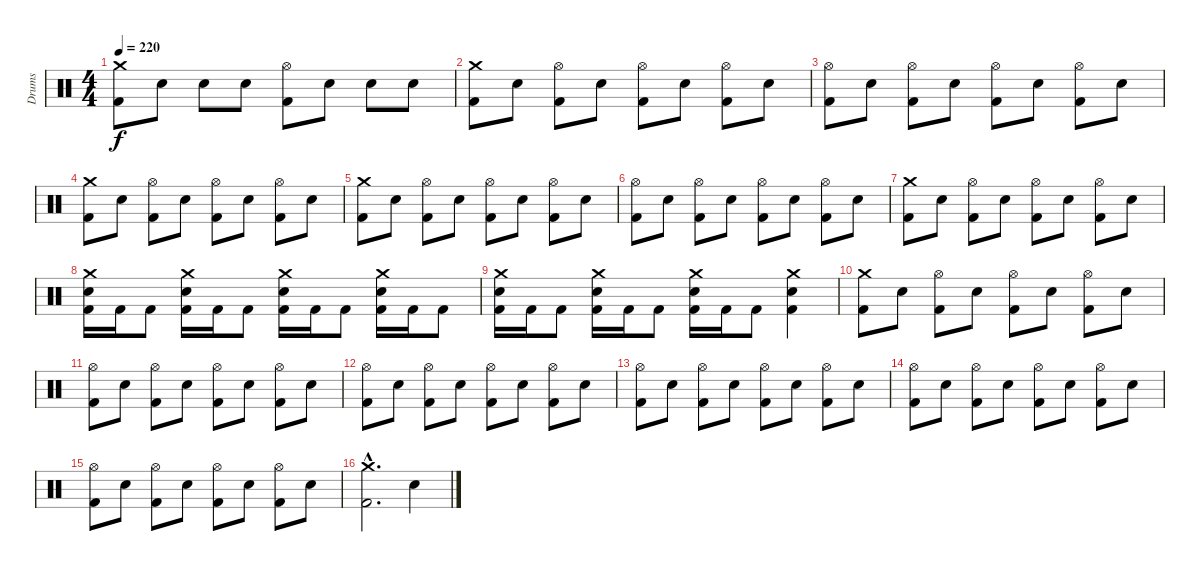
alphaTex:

\track ("Drums" "Drums") {instrument percussion}
\staff {score}
\articulation defaults
\ts (4 4)
\tempo 220
\clef neutral
\ks c
("Crash medium (hit)" "Kick (hit) 2").8{dy f} "Electric Snare (hit)".8 "Electric Snare (hit)".8 "Electric Snare (hit)".8 ("Hi-Hat (open)" "Kick (hit) 2").8 "Electric Snare (hit)".8 "Electric Snare (hit)".8 "Electric Snare (hit)".8 |
("Crash medium (hit)" "Kick (hit) 2").8 "Electric Snare (hit)".8 ("Hi-Hat (open)" "Kick (hit) 2").8 "Electric Snare (hit)".8 ("Hi-Hat (open)" "Kick (hit) 2").8 "Electric Snare (hit)".8 ("Hi-Hat (open)" "Kick (hit) 2").8 "Electric Snare (hit)".8 |
("Hi-Hat (open)" "Kick (hit) 2").8 "Electric Snare (hit)".8 ("Hi-Hat (open)" "Kick (hit) 2").8 "Electric Snare (hit)".8 ("Hi-Hat (open)" "Kick (hit) 2").8 "Electric Snare (hit)".8 ("Hi-Hat (open)" "Kick (hit) 2").8 "Electric Snare (hit)".8 |
("Crash medium (hit)" "Kick (hit) 2").8 "Electric Snare (hit)".8 ("Hi-Hat (open)" "Kick (hit) 2").8 "Electric Snare (hit)".8 ("Hi-Hat (open)" "Kick (hit) 2").8 "Electric Snare (hit)".8 ("Hi-Hat (open)" "Kick (hit) 2").8 "Electric Snare (hit)".8 |
("Crash medium (hit)" "Kick (hit) 2").8 "Electric Snare (hit)".8 ("Hi-Hat (open)" "Kick (hit) 2").8 "Electric Snare (hit)".8 ("Hi-Hat (open)" "Kick (hit) 2").8 "Electric Snare (hit)".8 ("Hi-Hat (open)" "Kick (hit) 2").8 "Electric Snare (hit)".8 |
("Hi-Hat (open)" "Kick (hit) 2").8 "Electric Snare (hit)".8 ("Hi-Hat (open)" "Kick (hit) 2").8 "Electric Snare (hit)".8 ("Hi-Hat (open)" "Kick (hit) 2").8 "Electric Snare (hit)".8 ("Hi-Hat (open)" "Kick (hit) 2").8 "Electric Snare (hit)".8 |
("Crash medium (hit)" "Kick (hit) 2").8 "Electric Snare (hit)".8 ("Hi-Hat (open)" "Kick (hit) 2").8 "Electric Snare (hit)".8 ("Hi-Hat (open)" "Kick (hit) 2").8 "Electric Snare (hit)".8 ("Hi-Hat (open)" "Kick (hit) 2").8 "Electric Snare (hit)".8 |
("Crash medium (hit)" "Electric Snare (hit)" "Kick (hit) 2").16 "Kick (hit) 2".16 "Kick (hit) 2".8 ("Crash medium (hit)" "Electric Snare (hit)" "Kick (hit) 2").16 "Kick (hit) 2".16 "Kick (hit) 2".8 ("Crash medium (hit)" "Electric Snare (hit)" "Kick (hit) 2").16 "Kick (hit) 2".16 "Kick (hit) 2".8 ("Crash medium (hit)" "Electric Snare (hit)" "Kick (hit) 2").16 "Kick (hit) 2".16 "Kick (hit) 2".8 |
("Crash medium (hit)" "Electric Snare (hit)" "Kick (hit) 2").16 "Kick (hit) 2".16 "Kick (hit) 2".8 ("Crash medium (hit)" "Electric Snare (hit)" "Kick (hit) 2").16 "Kick (hit) 2".16 "Kick (hit) 2".8 ("Crash medium (hit)" "Electric Snare (hit)" "Kick (hit) 2").16 "Kick (hit) 2".16 "Kick (hit) 2".8 ("Crash medium (hit)" "Electric Snare (hit)" "Kick (hit) 2").4 |
("Crash medium (hit)" "Kick (hit) 2").8 "Electric Snare (hit)".8 ("Hi-Hat (open)" "Kick (hit) 2").8 "Electric Snare (hit)".8 ("Hi-Hat (open)" "Kick (hit) 2").8 "Electric Snare (hit)".8 ("Hi-Hat (open)" "Kick (hit) 2").8 "Electric Snare (hit)".8 |
("Hi-Hat (open)" "Kick (hit) 2").8 "Electric Snare (hit)".8 ("Hi-Hat (open)" "Kick (hit) 2").8 "Electric Snare (hit)".8 ("Hi-Hat (open)" "Kick (hit) 2").8 "Electric Snare (hit)".8 ("Hi-Hat (open)" "Kick (hit) 2").8 "Electric Snare (hit)".8 |
("Hi-Hat (open)" "Kick (hit) 2").8 "Electric Snare (hit)".8 ("Hi-Hat (open)" "Kick (hit) 2").8 "Electric Snare (hit)".8 ("Hi-Hat (open)" "Kick (hit) 2").8 "Electric Snare (hit)".8 ("Hi-Hat (open)" "Kick (hit) 2").8 "Electric Snare (hit)".8 |
("Hi-Hat (open)" "Kick (hit) 2").8 "Electric Snare (hit)".8 ("Hi-Hat (open)" "Kick (hit) 2").8 "Electric Snare (hit)".8 ("Hi-Hat (open)" "Kick (hit) 2").8 "Electric Snare (hit)".8 ("Hi-Hat (open)" "Kick (hit) 2").8 "Electric Snare (hit)".8 |
("Hi-Hat (open)" "Kick (hit) 2").8 "Electric Snare (hit)".8 ("Hi-Hat (open)" "Kick (hit) 2").8 "Electric Snare (hit)".8 ("Hi-Hat (open)" "Kick (hit) 2").8 "Electric Snare (hit)".8 ("Hi-Hat (open)" "Kick (hit) 2").8 "Electric Snare (hit)".8 |
("Hi-Hat (open)" "Kick (hit) 2").8 "Electric Snare (hit)".8 ("Hi-Hat (open)" "Kick (hit) 2").8 "Electric Snare (hit)".8 ("Hi-Hat (open)" "Kick (hit) 2").8 "Electric Snare (hit)".8 ("Hi-Hat (open)" "Kick (hit) 2").8 "Electric Snare (hit)".8 |
("Crash medium (hit)"{hac} "Kick (hit) 2"{hac}).2{d} "Electric Snare (hit)".4
